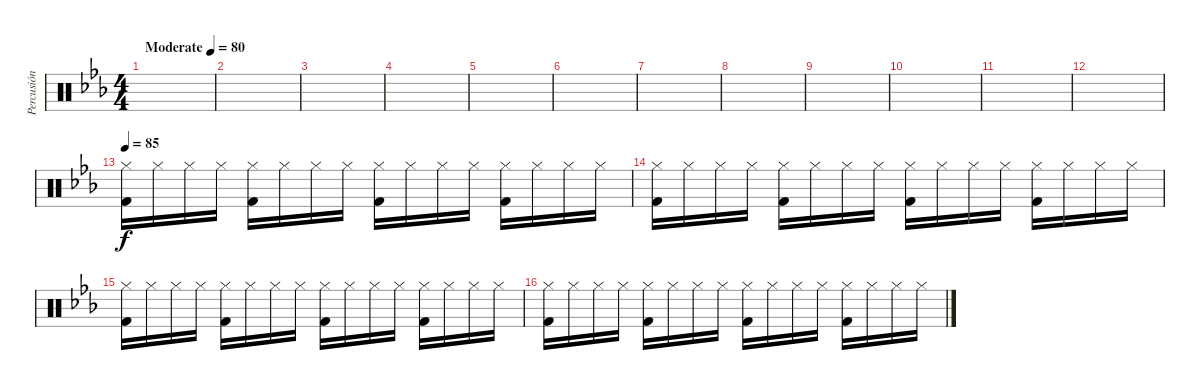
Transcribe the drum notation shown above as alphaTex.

\track ("Percusión" "Percusión") {instrument percussion}
\staff {score}
\articulation defaults
\ts (4 4)
\tempo (80 "Moderate")
\clef neutral
\ks eb
|
|
|
|
|
|
|
|
|
|
|
|
\tempo 85
("Hi-Hat (closed)" "Kick (hit) 2").16 "Hi-Hat (closed)".16 "Hi-Hat (closed)".16 "Hi-Hat (closed)".16 ("Hi-Hat (closed)" "Kick (hit) 2").16 "Hi-Hat (closed)".16 "Hi-Hat (closed)".16 "Hi-Hat (closed)".16 ("Hi-Hat (closed)" "Kick (hit) 2").16 "Hi-Hat (closed)".16 "Hi-Hat (closed)".16 "Hi-Hat (closed)".16 ("Hi-Hat (closed)" "Kick (hit) 2").16 "Hi-Hat (closed)".16 "Hi-Hat (closed)".16 "Hi-Hat (closed)".16 |
("Hi-Hat (closed)" "Kick (hit) 2").16 "Hi-Hat (closed)".16 "Hi-Hat (closed)".16 "Hi-Hat (closed)".16 ("Hi-Hat (closed)" "Kick (hit) 2").16 "Hi-Hat (closed)".16 "Hi-Hat (closed)".16 "Hi-Hat (closed)".16 ("Hi-Hat (closed)" "Kick (hit) 2").16 "Hi-Hat (closed)".16 "Hi-Hat (closed)".16 "Hi-Hat (closed)".16 ("Hi-Hat (closed)" "Kick (hit) 2").16 "Hi-Hat (closed)".16 "Hi-Hat (closed)".16 "Hi-Hat (closed)".16 |
("Hi-Hat (closed)" "Kick (hit) 2").16 "Hi-Hat (closed)".16 "Hi-Hat (closed)".16 "Hi-Hat (closed)".16 ("Hi-Hat (closed)" "Kick (hit) 2").16 "Hi-Hat (closed)".16 "Hi-Hat (closed)".16 "Hi-Hat (closed)".16 ("Hi-Hat (closed)" "Kick (hit) 2").16 "Hi-Hat (closed)".16 "Hi-Hat (closed)".16 "Hi-Hat (closed)".16 ("Hi-Hat (closed)" "Kick (hit) 2").16 "Hi-Hat (closed)".16 "Hi-Hat (closed)".16 "Hi-Hat (closed)".16 |
("Hi-Hat (closed)" "Kick (hit) 2").16 "Hi-Hat (closed)".16 "Hi-Hat (closed)".16 "Hi-Hat (closed)".16 ("Hi-Hat (closed)" "Kick (hit) 2").16 "Hi-Hat (closed)".16 "Hi-Hat (closed)".16 "Hi-Hat (closed)".16 ("Hi-Hat (closed)" "Kick (hit) 2").16 "Hi-Hat (closed)".16 "Hi-Hat (closed)".16 "Hi-Hat (closed)".16 ("Hi-Hat (closed)" "Kick (hit) 2").16 "Hi-Hat (closed)".16 "Hi-Hat (closed)".16 "Hi-Hat (closed)".16
